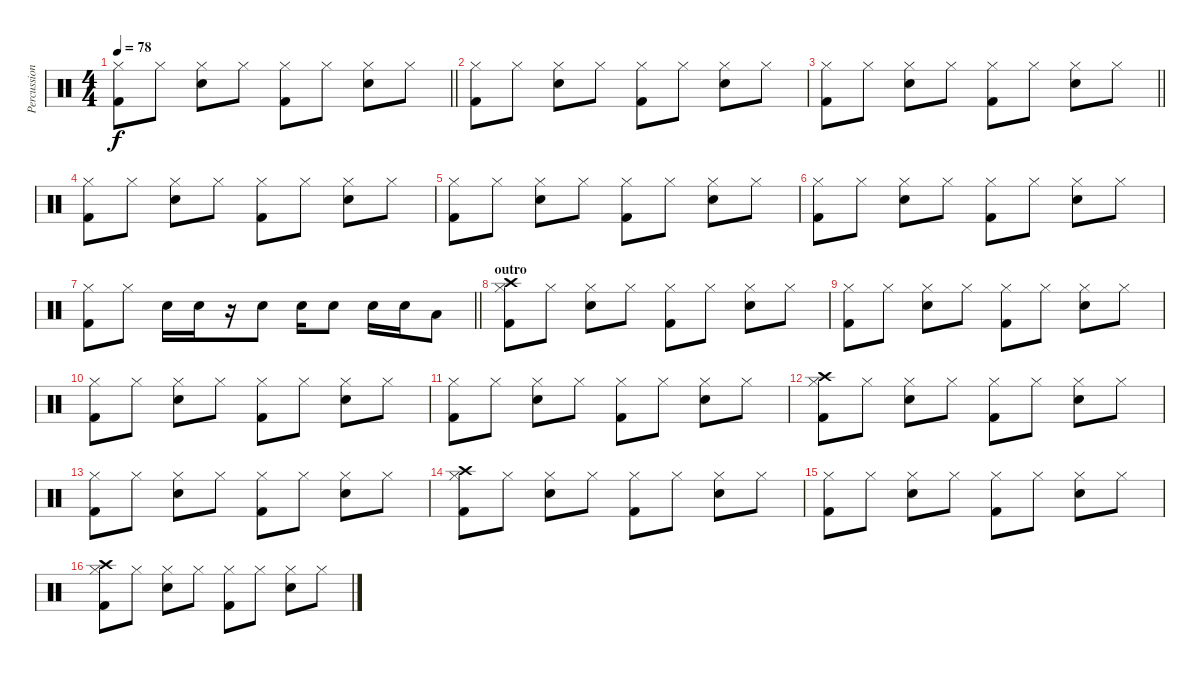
\track ("Percussioni" "Percussion") {instrument percussion}
\staff {score}
\articulation defaults
\ts (4 4)
\tempo 78
\clef neutral
\barLineRight lightlight
\ks c
("Hi-Hat (closed)" "Kick (hit) 2").8{dy f} "Hi-Hat (closed)".8 ("Hi-Hat (closed)" "Snare (hit) 2").8 "Hi-Hat (closed)".8 ("Hi-Hat (closed)" "Kick (hit) 2").8 "Hi-Hat (closed)".8 ("Hi-Hat (closed)" "Snare (hit) 2").8 "Hi-Hat (closed)".8 |
("Hi-Hat (closed)" "Kick (hit) 2").8 "Hi-Hat (closed)".8 ("Hi-Hat (closed)" "Snare (hit) 2").8 "Hi-Hat (closed)".8 ("Hi-Hat (closed)" "Kick (hit) 2").8 "Hi-Hat (closed)".8 ("Hi-Hat (closed)" "Snare (hit) 2").8 "Hi-Hat (closed)".8 |
\barLineRight lightlight
("Hi-Hat (closed)" "Kick (hit) 2").8 "Hi-Hat (closed)".8 ("Hi-Hat (closed)" "Snare (hit) 2").8 "Hi-Hat (closed)".8 ("Hi-Hat (closed)" "Kick (hit) 2").8 "Hi-Hat (closed)".8 ("Hi-Hat (closed)" "Snare (hit) 2").8 "Hi-Hat (closed)".8 |
("Hi-Hat (closed)" "Kick (hit) 2").8 "Hi-Hat (closed)".8 ("Hi-Hat (closed)" "Snare (hit) 2").8 "Hi-Hat (closed)".8 ("Hi-Hat (closed)" "Kick (hit) 2").8 "Hi-Hat (closed)".8 ("Hi-Hat (closed)" "Snare (hit) 2").8 "Hi-Hat (closed)".8 |
("Hi-Hat (closed)" "Kick (hit) 2").8 "Hi-Hat (closed)".8 ("Hi-Hat (closed)" "Snare (hit) 2").8 "Hi-Hat (closed)".8 ("Hi-Hat (closed)" "Kick (hit) 2").8 "Hi-Hat (closed)".8 ("Hi-Hat (closed)" "Snare (hit) 2").8 "Hi-Hat (closed)".8 |
("Hi-Hat (closed)" "Kick (hit) 2").8 "Hi-Hat (closed)".8 ("Hi-Hat (closed)" "Snare (hit) 2").8 "Hi-Hat (closed)".8 ("Hi-Hat (closed)" "Kick (hit) 2").8 "Hi-Hat (closed)".8 ("Hi-Hat (closed)" "Snare (hit) 2").8 "Hi-Hat (closed)".8 |
\barLineRight lightlight
("Hi-Hat (closed)" "Kick (hit) 2").8 "Hi-Hat (closed)".8 "Snare (hit) 2".16 "Snare (hit) 2".16 r.16 "Snare (hit) 2".8 "Snare (hit) 2".16 "Snare (hit) 2".8 "Snare (hit) 2".16 "Snare (hit) 2".16 "Low Tom (hit)".8 |
\section ("" "outro")
("Hi-Hat (closed)" "Kick (hit) 2" "Crash high (hit)").8 "Hi-Hat (closed)".8 ("Hi-Hat (closed)" "Snare (hit) 2").8 "Hi-Hat (closed)".8 ("Hi-Hat (closed)" "Kick (hit) 2").8 "Hi-Hat (closed)".8 ("Hi-Hat (closed)" "Snare (hit) 2").8 "Hi-Hat (closed)".8 |
("Hi-Hat (closed)" "Kick (hit) 2").8 "Hi-Hat (closed)".8 ("Hi-Hat (closed)" "Snare (hit) 2").8 "Hi-Hat (closed)".8 ("Hi-Hat (closed)" "Kick (hit) 2").8 "Hi-Hat (closed)".8 ("Hi-Hat (closed)" "Snare (hit) 2").8 "Hi-Hat (closed)".8 |
("Hi-Hat (closed)" "Kick (hit) 2").8 "Hi-Hat (closed)".8 ("Hi-Hat (closed)" "Snare (hit) 2").8 "Hi-Hat (closed)".8 ("Hi-Hat (closed)" "Kick (hit) 2").8 "Hi-Hat (closed)".8 ("Hi-Hat (closed)" "Snare (hit) 2").8 "Hi-Hat (closed)".8 |
("Hi-Hat (closed)" "Kick (hit) 2").8 "Hi-Hat (closed)".8 ("Hi-Hat (closed)" "Snare (hit) 2").8 "Hi-Hat (closed)".8 ("Hi-Hat (closed)" "Kick (hit) 2").8 "Hi-Hat (closed)".8 ("Hi-Hat (closed)" "Snare (hit) 2").8 "Hi-Hat (closed)".8 |
("Hi-Hat (closed)" "Kick (hit) 2" "Crash high (hit)").8 "Hi-Hat (closed)".8 ("Hi-Hat (closed)" "Snare (hit) 2").8 "Hi-Hat (closed)".8 ("Hi-Hat (closed)" "Kick (hit) 2").8 "Hi-Hat (closed)".8 ("Hi-Hat (closed)" "Snare (hit) 2").8 "Hi-Hat (closed)".8 |
("Hi-Hat (closed)" "Kick (hit) 2").8 "Hi-Hat (closed)".8 ("Hi-Hat (closed)" "Snare (hit) 2").8 "Hi-Hat (closed)".8 ("Hi-Hat (closed)" "Kick (hit) 2").8 "Hi-Hat (closed)".8 ("Hi-Hat (closed)" "Snare (hit) 2").8 "Hi-Hat (closed)".8 |
("Hi-Hat (closed)" "Kick (hit) 2" "Crash high (hit)").8 "Hi-Hat (closed)".8 ("Hi-Hat (closed)" "Snare (hit) 2").8 "Hi-Hat (closed)".8 ("Hi-Hat (closed)" "Kick (hit) 2").8 "Hi-Hat (closed)".8 ("Hi-Hat (closed)" "Snare (hit) 2").8 "Hi-Hat (closed)".8 |
("Hi-Hat (closed)" "Kick (hit) 2").8 "Hi-Hat (closed)".8 ("Hi-Hat (closed)" "Snare (hit) 2").8 "Hi-Hat (closed)".8 ("Hi-Hat (closed)" "Kick (hit) 2").8 "Hi-Hat (closed)".8 ("Hi-Hat (closed)" "Snare (hit) 2").8 "Hi-Hat (closed)".8 |
("Hi-Hat (closed)" "Kick (hit) 2" "Crash high (hit)").8 "Hi-Hat (closed)".8 ("Hi-Hat (closed)" "Snare (hit) 2").8 "Hi-Hat (closed)".8 ("Hi-Hat (closed)" "Kick (hit) 2").8 "Hi-Hat (closed)".8 ("Hi-Hat (closed)" "Snare (hit) 2").8 "Hi-Hat (closed)".8
